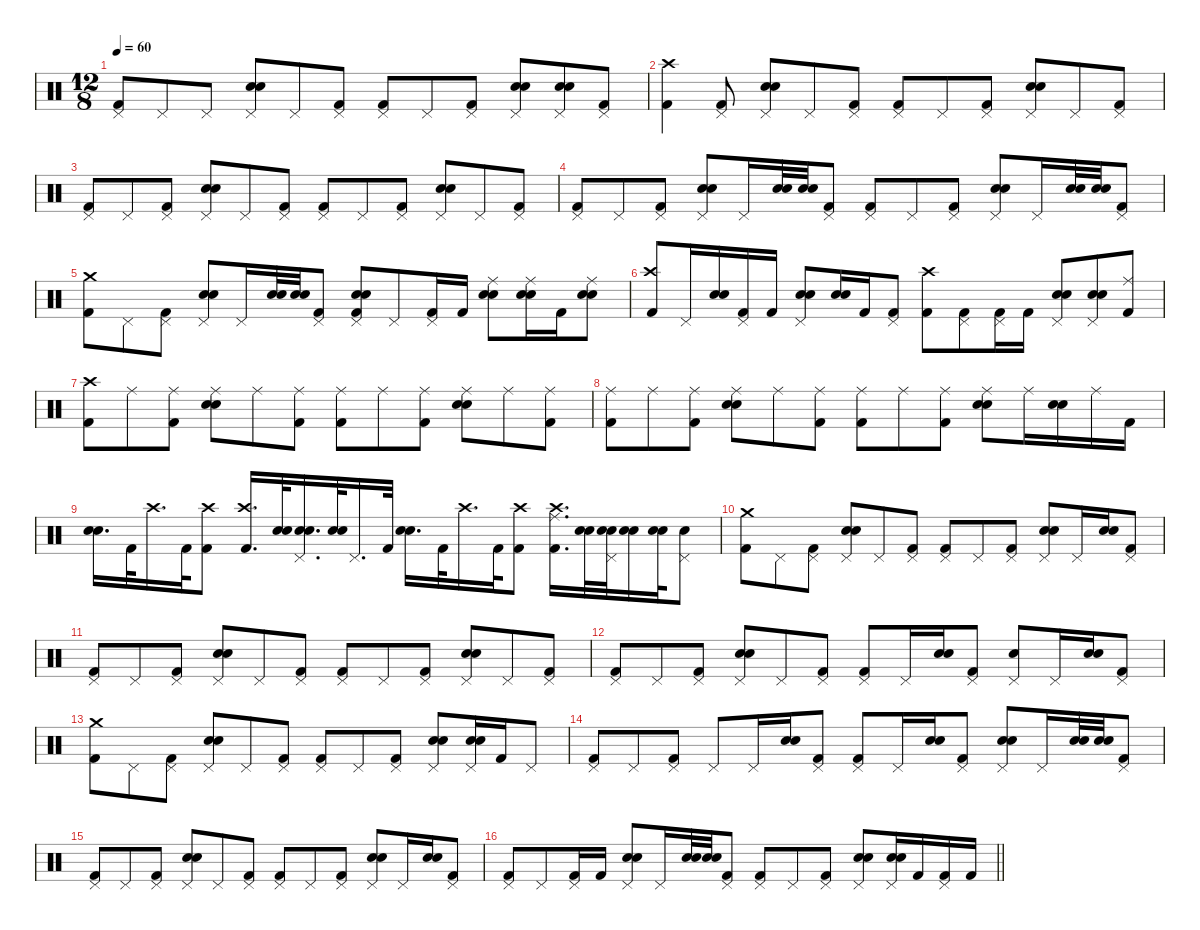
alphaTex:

\defaultSystemsLayout 4
\hideDynamics
\bracketExtendMode nobrackets
\singleTrackTrackNamePolicy hidden
\multiTrackTrackNamePolicy hidden
\otherSystemsTrackNameOrientation horizontal
\track ("Drums" "drm.") {instrument percussion}
\staff {score}
\articulation defaults
\ts (12 8)
\tempo 60
\clef neutral
\ks c
("Pedal Hi-Hat (hit)" "Kick (hit) 2").8{dy f beam Up} "Pedal Hi-Hat (hit)".8{beam Up} "Pedal Hi-Hat (hit)".8{beam Up} ("Pedal Hi-Hat (hit)" "Snare (hit) 2" "Snare (hit) 2").8{beam Up} "Pedal Hi-Hat (hit)".8{beam Up} ("Pedal Hi-Hat (hit)" "Kick (hit) 2").8{beam Up} ("Pedal Hi-Hat (hit)" "Kick (hit) 2").8{beam Up} "Pedal Hi-Hat (hit)".8{beam Up} ("Pedal Hi-Hat (hit)" "Kick (hit) 2").8{beam Up} ("Pedal Hi-Hat (hit)" "Snare (hit) 2" "Snare (hit) 2").8{beam Up} ("Pedal Hi-Hat (hit)" "Snare (hit) 2" "Snare (hit) 2").8{beam Up} ("Pedal Hi-Hat (hit)" "Kick (hit) 2").8{beam Up} |
("Crash high (hit)" "Kick (hit) 2").4{dy fff beam Down} ("Pedal Hi-Hat (hit)" "Kick (hit) 2").8{dy f beam Up} ("Pedal Hi-Hat (hit)" "Snare (hit) 2" "Snare (hit) 2").8{beam Up} "Pedal Hi-Hat (hit)".8{beam Up} ("Pedal Hi-Hat (hit)" "Kick (hit) 2").8{beam Up} ("Pedal Hi-Hat (hit)" "Kick (hit) 2").8{beam Up} "Pedal Hi-Hat (hit)".8{beam Up} ("Pedal Hi-Hat (hit)" "Kick (hit) 2").8{beam Up} ("Pedal Hi-Hat (hit)" "Snare (hit) 2" "Snare (hit) 2").8{beam Up} "Pedal Hi-Hat (hit)".8{beam Up} ("Pedal Hi-Hat (hit)" "Kick (hit) 2").8{beam Up} |
("Pedal Hi-Hat (hit)" "Kick (hit) 2").8{beam Up} "Pedal Hi-Hat (hit)".8{beam Up} ("Pedal Hi-Hat (hit)" "Kick (hit) 2").8{beam Up} ("Pedal Hi-Hat (hit)" "Snare (hit) 2" "Snare (hit) 2").8{beam Up} "Pedal Hi-Hat (hit)".8{beam Up} ("Pedal Hi-Hat (hit)" "Kick (hit) 2").8{beam Up} ("Pedal Hi-Hat (hit)" "Kick (hit) 2").8{beam Up} "Pedal Hi-Hat (hit)".8{beam Up} ("Pedal Hi-Hat (hit)" "Kick (hit) 2").8{beam Up} ("Pedal Hi-Hat (hit)" "Snare (hit) 2" "Snare (hit) 2").8{beam Up} "Pedal Hi-Hat (hit)".8{beam Up} ("Pedal Hi-Hat (hit)" "Kick (hit) 2").8{beam Up} |
("Pedal Hi-Hat (hit)" "Kick (hit) 2").8{beam Up} "Pedal Hi-Hat (hit)".8{beam Up} ("Pedal Hi-Hat (hit)" "Kick (hit) 2").8{beam Up} ("Pedal Hi-Hat (hit)" "Snare (hit) 2" "Snare (hit) 2").8{beam Up} "Pedal Hi-Hat (hit)".16{beam Up} ("Snare (hit) 2" "Snare (hit) 2").32{dy mf beam Up} ("Snare (hit) 2" "Snare (hit) 2").32{dy f beam Up} ("Pedal Hi-Hat (hit)" "Kick (hit) 2").8{beam Up} ("Pedal Hi-Hat (hit)" "Kick (hit) 2").8{beam Up} "Pedal Hi-Hat (hit)".8{beam Up} ("Pedal Hi-Hat (hit)" "Kick (hit) 2").8{beam Up} ("Pedal Hi-Hat (hit)" "Snare (hit) 2" "Snare (hit) 2").8{beam Up} "Pedal Hi-Hat (hit)".16{beam Up} ("Snare (hit) 2" "Snare (hit) 2").32{beam Up} ("Snare (hit) 2" "Snare (hit) 2").32{beam Up} ("Pedal Hi-Hat (hit)" "Kick (hit) 2").8{beam Up} |
("Crash medium (hit)" "Kick (hit) 2").8{beam Down} "Pedal Hi-Hat (hit)".8{beam Down} ("Pedal Hi-Hat (hit)" "Kick (hit) 2").8{beam Down} ("Pedal Hi-Hat (hit)" "Snare (hit) 2" "Snare (hit) 2").8{beam Up} "Pedal Hi-Hat (hit)".16{beam Up} ("Snare (hit) 2" "Snare (hit) 2").32{beam Up} ("Snare (hit) 2" "Snare (hit) 2").32{dy mf beam Up} ("Pedal Hi-Hat (hit)" "Kick (hit) 2").8{dy f beam Up} ("Pedal Hi-Hat (hit)" "Snare (hit) 2" "Kick (hit) 2" "Snare (hit) 2").8{beam Up} "Pedal Hi-Hat (hit)".8{beam Up} ("Pedal Hi-Hat (hit)" "Kick (hit) 2").16{beam Up} "Kick (hit) 2".16{beam Up} ("Ride (middle)" "Snare (hit) 2" "Snare (hit) 2").8{beam Down} ("Ride (middle)" "Snare (hit) 2" "Snare (hit) 2").16{beam Down} "Kick (hit) 2".16{beam Down} ("Ride (middle)" "Snare (hit) 2" "Snare (hit) 2").8{beam Down} |
("Crash high (hit)" "Kick (hit) 2").8{beam Up} "Pedal Hi-Hat (hit)".16{beam Up} ("Snare (hit) 2" "Snare (hit) 2").16{beam Up} ("Pedal Hi-Hat (hit)" "Kick (hit) 2").16{beam Up} "Kick (hit) 2".16{beam Up} ("Pedal Hi-Hat (hit)" "Snare (hit) 2" "Snare (hit) 2").8{beam Up} ("Snare (hit) 2" "Snare (hit) 2").16{beam Up} "Kick (hit) 2".16{beam Up} ("Pedal Hi-Hat (hit)" "Kick (hit) 2").8{beam Up} ("Crash high (hit)" "Kick (hit) 2").8{beam Down} ("Pedal Hi-Hat (hit)" "Kick (hit) 2").8{beam Down} ("Pedal Hi-Hat (hit)" "Kick (hit) 2").16{beam Down} "Kick (hit) 2".16{beam Down} ("Pedal Hi-Hat (hit)" "Snare (hit) 2" "Snare (hit) 2").8{beam Up} ("Pedal Hi-Hat (hit)" "Snare (hit) 2" "Snare (hit) 2").8{beam Up} ("Ride (middle)" "Kick (hit) 2").8{beam Up} |
("Crash high (hit)" "Kick (hit) 2").8{beam Down} "Ride (middle)".8{beam Down} ("Ride (middle)" "Kick (hit) 2").8{beam Down} ("Ride (middle)" "Snare (hit) 2" "Snare (hit) 2").8{beam Down} "Ride (middle)".8{beam Down} ("Ride (middle)" "Kick (hit) 2").8{beam Down} ("Ride (middle)" "Kick (hit) 2").8{beam Down} "Ride (middle)".8{beam Down} ("Ride (middle)" "Kick (hit) 2").8{beam Down} ("Ride (middle)" "Snare (hit) 2" "Snare (hit) 2").8{beam Down} "Ride (middle)".8{beam Down} ("Ride (middle)" "Kick (hit) 2").8{beam Down} |
("Ride (middle)" "Kick (hit) 2").8{beam Down} "Ride (middle)".8{beam Down} ("Ride (middle)" "Kick (hit) 2").8{beam Down} ("Ride (middle)" "Snare (hit) 2" "Snare (hit) 2").8{beam Down} "Ride (middle)".8{beam Down} ("Ride (middle)" "Kick (hit) 2").8{beam Down} ("Ride (middle)" "Kick (hit) 2").8{beam Down} "Ride (middle)".8{beam Down} ("Ride (middle)" "Kick (hit) 2").8{beam Down} ("Ride (middle)" "Snare (hit) 2" "Snare (hit) 2").8{beam Down} "Ride (middle)".16{beam Down} ("Snare (hit) 2" "Snare (hit) 2").16{dy mf beam Down} "Ride (middle)".16{dy f beam Down} "Kick (hit) 2".16{beam Down} |
("Snare (hit) 2" "Snare (hit) 2").16{d dy mf beam Down} "Kick (hit) 2".32{dy f beam Down} "Crash high (hit)".16{d beam Down} "Kick (hit) 2".32{beam Down} ("Crash high (hit)" "Kick (hit) 2").8{beam Down} ("Crash high (hit)" "Kick (hit) 2").16{d beam Up} ("Snare (hit) 2" "Snare (hit) 2").32{dy mf beam Up} ("Pedal Hi-Hat (hit)" "Snare (hit) 2" "Snare (hit) 2").16{d dy f beam Up} ("Snare (hit) 2" "Snare (hit) 2").32{beam Up} "Pedal Hi-Hat (hit)".16{d beam Up} "Kick (hit) 2".32{beam Up} ("Snare (hit) 2" "Snare (hit) 2").16{d beam Down} "Kick (hit) 2".32{beam Down} "Crash high (hit)".16{d beam Down} "Kick (hit) 2".32{beam Down} ("Kick (hit) 2" "Crash high (hit)").8{beam Down} ("Ride (middle)" "Kick (hit) 2" "Crash high (hit)").16{d beam Down} ("Snare (hit) 2" "Snare (hit) 2").32{beam Down} ("Pedal Hi-Hat (hit)" "Snare (hit) 2" "Snare (hit) 2").32{beam Down} ("Snare (hit) 2" "Snare (hit) 2").16{dy mf beam Down} ("Snare (hit) 2" "Snare (hit) 2").32{beam Down} ("Pedal Hi-Hat (hit)" "Snare (hit) 2").8{dy f beam Down} |
("Crash medium (hit)" "Kick (hit) 2").8{beam Down} "Pedal Hi-Hat (hit)".8{beam Down} ("Pedal Hi-Hat (hit)" "Kick (hit) 2").8{beam Down} ("Pedal Hi-Hat (hit)" "Snare (hit) 2" "Snare (hit) 2").8{beam Up} "Pedal Hi-Hat (hit)".8{beam Up} ("Pedal Hi-Hat (hit)" "Kick (hit) 2").8{beam Up} ("Pedal Hi-Hat (hit)" "Kick (hit) 2").8{beam Up} "Pedal Hi-Hat (hit)".8{beam Up} ("Pedal Hi-Hat (hit)" "Kick (hit) 2").8{beam Up} ("Pedal Hi-Hat (hit)" "Snare (hit) 2" "Snare (hit) 2").8{beam Up} "Pedal Hi-Hat (hit)".16{beam Up} ("Snare (hit) 2" "Snare (hit) 2").16{dy mf beam Up} ("Pedal Hi-Hat (hit)" "Kick (hit) 2").8{dy f beam Up} |
("Pedal Hi-Hat (hit)" "Kick (hit) 2").8{beam Up} "Pedal Hi-Hat (hit)".8{beam Up} ("Pedal Hi-Hat (hit)" "Kick (hit) 2").8{beam Up} ("Pedal Hi-Hat (hit)" "Snare (hit) 2" "Snare (hit) 2").8{beam Up} "Pedal Hi-Hat (hit)".8{beam Up} ("Pedal Hi-Hat (hit)" "Kick (hit) 2").8{beam Up} ("Pedal Hi-Hat (hit)" "Kick (hit) 2").8{beam Up} "Pedal Hi-Hat (hit)".8{beam Up} ("Pedal Hi-Hat (hit)" "Kick (hit) 2").8{beam Up} ("Pedal Hi-Hat (hit)" "Snare (hit) 2" "Snare (hit) 2").8{beam Up} "Pedal Hi-Hat (hit)".8{beam Up} ("Pedal Hi-Hat (hit)" "Kick (hit) 2").8{beam Up} |
("Pedal Hi-Hat (hit)" "Kick (hit) 2").8{beam Up} "Pedal Hi-Hat (hit)".8{beam Up} ("Pedal Hi-Hat (hit)" "Kick (hit) 2").8{beam Up} ("Pedal Hi-Hat (hit)" "Snare (hit) 2" "Snare (hit) 2").8{beam Up} "Pedal Hi-Hat (hit)".8{beam Up} ("Pedal Hi-Hat (hit)" "Kick (hit) 2").8{beam Up} ("Pedal Hi-Hat (hit)" "Kick (hit) 2").8{beam Up} "Pedal Hi-Hat (hit)".16{beam Up} ("Snare (hit) 2" "Snare (hit) 2").16{dy mf beam Up} ("Pedal Hi-Hat (hit)" "Kick (hit) 2").8{dy f beam Up} ("Pedal Hi-Hat (hit)" "Snare (hit) 2").8{beam Up} "Pedal Hi-Hat (hit)".16{beam Up} ("Snare (hit) 2" "Snare (hit) 2").16{dy mf beam Up} ("Pedal Hi-Hat (hit)" "Kick (hit) 2").8{dy f beam Up} |
("Crash medium (hit)" "Kick (hit) 2").8{beam Down} "Pedal Hi-Hat (hit)".8{beam Down} ("Pedal Hi-Hat (hit)" "Kick (hit) 2").8{beam Down} ("Pedal Hi-Hat (hit)" "Snare (hit) 2" "Snare (hit) 2").8{beam Up} "Pedal Hi-Hat (hit)".8{beam Up} ("Pedal Hi-Hat (hit)" "Kick (hit) 2").8{beam Up} ("Pedal Hi-Hat (hit)" "Kick (hit) 2").8{beam Up} "Pedal Hi-Hat (hit)".8{beam Up} ("Pedal Hi-Hat (hit)" "Kick (hit) 2").8{beam Up} ("Pedal Hi-Hat (hit)" "Snare (hit) 2" "Snare (hit) 2").8{beam Up} ("Pedal Hi-Hat (hit)" "Snare (hit) 2" "Snare (hit) 2").16{beam Up} "Kick (hit) 2".16{beam Up} "Pedal Hi-Hat (hit)".8{beam Up} |
("Pedal Hi-Hat (hit)" "Kick (hit) 2").8{beam Up} "Pedal Hi-Hat (hit)".8{beam Up} ("Pedal Hi-Hat (hit)" "Kick (hit) 2").8{beam Up} "Pedal Hi-Hat (hit)".8{beam Up} "Pedal Hi-Hat (hit)".16{beam Up} ("Snare (hit) 2" "Snare (hit) 2").16{dy mf beam Up} ("Pedal Hi-Hat (hit)" "Kick (hit) 2").8{dy f beam Up} ("Pedal Hi-Hat (hit)" "Kick (hit) 2").8{beam Up} "Pedal Hi-Hat (hit)".16{beam Up} ("Snare (hit) 2" "Snare (hit) 2").16{dy mf beam Up} ("Pedal Hi-Hat (hit)" "Kick (hit) 2").8{dy f beam Up} ("Pedal Hi-Hat (hit)" "Snare (hit) 2" "Snare (hit) 2").8{beam Up} "Pedal Hi-Hat (hit)".16{beam Up} ("Snare (hit) 2" "Snare (hit) 2").32{beam Up} ("Snare (hit) 2" "Snare (hit) 2").32{beam Up} ("Pedal Hi-Hat (hit)" "Kick (hit) 2").8{beam Up} |
("Pedal Hi-Hat (hit)" "Kick (hit) 2").8{beam Up} "Pedal Hi-Hat (hit)".8{beam Up} ("Pedal Hi-Hat (hit)" "Kick (hit) 2").8{beam Up} ("Pedal Hi-Hat (hit)" "Snare (hit) 2" "Snare (hit) 2").8{beam Up} "Pedal Hi-Hat (hit)".8{beam Up} ("Pedal Hi-Hat (hit)" "Kick (hit) 2").8{beam Up} ("Pedal Hi-Hat (hit)" "Kick (hit) 2").8{beam Up} "Pedal Hi-Hat (hit)".8{beam Up} ("Pedal Hi-Hat (hit)" "Kick (hit) 2").8{beam Up} ("Pedal Hi-Hat (hit)" "Snare (hit) 2" "Snare (hit) 2").8{beam Up} "Pedal Hi-Hat (hit)".16{beam Up} ("Snare (hit) 2" "Snare (hit) 2").16{dy mf beam Up} ("Pedal Hi-Hat (hit)" "Kick (hit) 2").8{dy f beam Up} |
\barLineRight lightlight
("Pedal Hi-Hat (hit)" "Kick (hit) 2").8{beam Up} "Pedal Hi-Hat (hit)".8{beam Up} ("Pedal Hi-Hat (hit)" "Kick (hit) 2").16{beam Up} "Kick (hit) 2".16{beam Up} ("Pedal Hi-Hat (hit)" "Snare (hit) 2" "Snare (hit) 2").8{beam Up} "Pedal Hi-Hat (hit)".16{beam Up} ("Snare (hit) 2" "Snare (hit) 2").32{beam Up} ("Snare (hit) 2" "Snare (hit) 2").32{beam Up} ("Pedal Hi-Hat (hit)" "Kick (hit) 2").8{beam Up} ("Pedal Hi-Hat (hit)" "Kick (hit) 2").8{beam Up} "Pedal Hi-Hat (hit)".8{beam Up} ("Pedal Hi-Hat (hit)" "Kick (hit) 2").8{beam Up} ("Pedal Hi-Hat (hit)" "Snare (hit) 2" "Snare (hit) 2").8{beam Up} ("Pedal Hi-Hat (hit)" "Snare (hit) 2" "Snare (hit) 2").16{beam Up} "Kick (hit) 2".16{beam Up} ("Pedal Hi-Hat (hit)" "Kick (hit) 2").16{beam Up} "Kick (hit) 2".16{beam Up}
